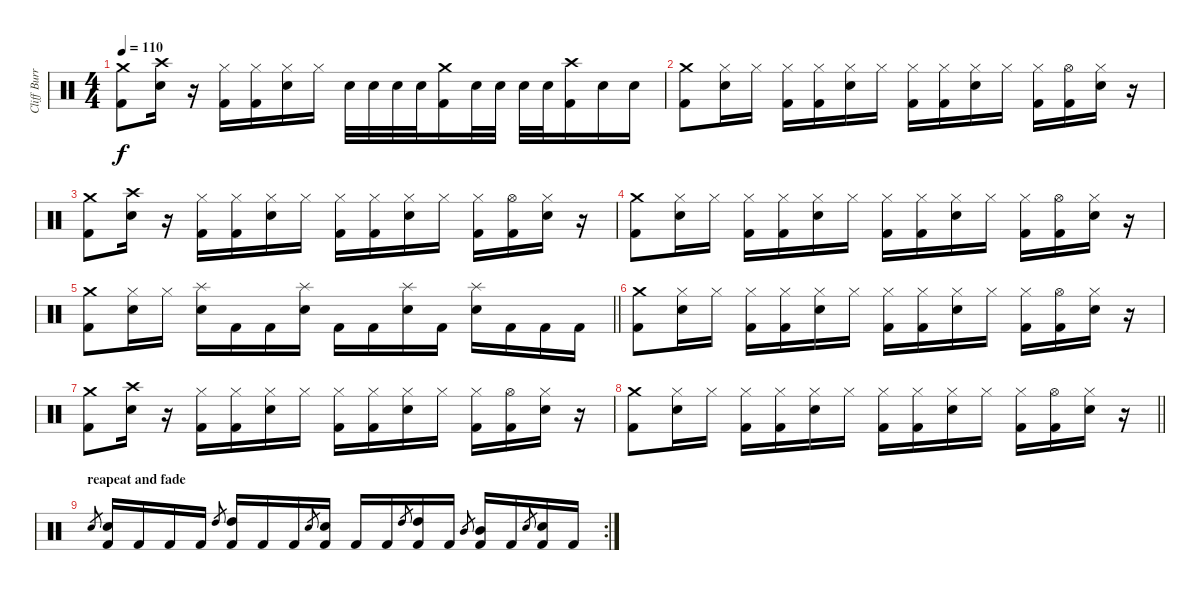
\track ("Cliff Burr" "Cliff Burr") {instrument percussion}
\staff {score}
\articulation defaults
\ts (4 4)
\tempo 110
\clef neutral
\ks c
("Crash medium (hit)" "Kick (hit) 2").8{dy f} ("Crash high (hit)" "Electric Snare (hit)").16 r.16 ("Hi-Hat (closed)" "Kick (hit) 2").16 ("Hi-Hat (closed)" "Kick (hit) 2").16 ("Hi-Hat (closed)" "Electric Snare (hit)").16 "Hi-Hat (closed)".16 "Electric Snare (hit)".32 "Electric Snare (hit)".32 "Electric Snare (hit)".32 "Electric Snare (hit)".32 ("Crash medium (hit)" "Kick (hit) 2").16 "Electric Snare (hit)".32 "Electric Snare (hit)".32 "Electric Snare (hit)".32 "Electric Snare (hit)".32 ("Crash high (hit)" "Kick (hit) 2").16 "Electric Snare (hit)".16 "Electric Snare (hit)".16 |
("Crash medium (hit)" "Kick (hit) 2").8 ("Hi-Hat (closed)" "Electric Snare (hit)").16 "Hi-Hat (closed)".16 ("Hi-Hat (closed)" "Kick (hit) 2").16 ("Hi-Hat (closed)" "Kick (hit) 2").16 ("Hi-Hat (closed)" "Electric Snare (hit)").16 "Hi-Hat (closed)".16 ("Hi-Hat (closed)" "Kick (hit) 2").16 ("Hi-Hat (closed)" "Kick (hit) 2").16 ("Hi-Hat (closed)" "Electric Snare (hit)").16 "Hi-Hat (closed)".16 ("Hi-Hat (closed)" "Kick (hit) 2").16 ("Hi-Hat (open)" "Kick (hit) 2").16 ("Hi-Hat (closed)" "Electric Snare (hit)").16 r.16 |
("Crash medium (hit)" "Kick (hit) 2").8 ("Crash high (hit)" "Electric Snare (hit)").16 r.16 ("Hi-Hat (closed)" "Kick (hit) 2").16 ("Hi-Hat (closed)" "Kick (hit) 2").16 ("Hi-Hat (closed)" "Electric Snare (hit)").16 "Hi-Hat (closed)".16 ("Hi-Hat (closed)" "Kick (hit) 2").16 ("Hi-Hat (closed)" "Kick (hit) 2").16 ("Hi-Hat (closed)" "Electric Snare (hit)").16 "Hi-Hat (closed)".16 ("Hi-Hat (closed)" "Kick (hit) 2").16 ("Hi-Hat (open)" "Kick (hit) 2").16 ("Hi-Hat (closed)" "Electric Snare (hit)").16 r.16 |
("Crash medium (hit)" "Kick (hit) 2").8 ("Hi-Hat (closed)" "Electric Snare (hit)").16 "Hi-Hat (closed)".16 ("Hi-Hat (closed)" "Kick (hit) 2").16 ("Hi-Hat (closed)" "Kick (hit) 2").16 ("Hi-Hat (closed)" "Electric Snare (hit)").16 "Hi-Hat (closed)".16 ("Hi-Hat (closed)" "Kick (hit) 2").16 ("Hi-Hat (closed)" "Kick (hit) 2").16 ("Hi-Hat (closed)" "Electric Snare (hit)").16 "Hi-Hat (closed)".16 ("Hi-Hat (closed)" "Kick (hit) 2").16 ("Hi-Hat (open)" "Kick (hit) 2").16 ("Hi-Hat (closed)" "Electric Snare (hit)").16 r.16 |
\barLineRight lightlight
("Crash medium (hit)" "Kick (hit) 2").8 ("Hi-Hat (closed)" "Electric Snare (hit)").16 "Hi-Hat (closed)".16 ("Splash (hit)" "Electric Snare (hit)").16 "Kick (hit) 2".16 "Kick (hit) 2".16 ("Splash (hit)" "Electric Snare (hit)").16 "Kick (hit) 2".16 "Kick (hit) 2".16 ("Splash (hit)" "Electric Snare (hit)").16 "Kick (hit) 2".16 ("Splash (hit)" "Electric Snare (hit)").16 "Kick (hit) 2".16 "Kick (hit) 2".16 "Kick (hit) 2".16 |
("Crash medium (hit)" "Kick (hit) 2").8 ("Hi-Hat (closed)" "Electric Snare (hit)").16 "Hi-Hat (closed)".16 ("Hi-Hat (closed)" "Kick (hit) 2").16 ("Hi-Hat (closed)" "Kick (hit) 2").16 ("Hi-Hat (closed)" "Electric Snare (hit)").16 "Hi-Hat (closed)".16 ("Hi-Hat (closed)" "Kick (hit) 2").16 ("Hi-Hat (closed)" "Kick (hit) 2").16 ("Hi-Hat (closed)" "Electric Snare (hit)").16 "Hi-Hat (closed)".16 ("Hi-Hat (closed)" "Kick (hit) 2").16 ("Hi-Hat (open)" "Kick (hit) 2").16 ("Hi-Hat (closed)" "Electric Snare (hit)").16 r.16 |
("Crash medium (hit)" "Kick (hit) 2").8 ("Crash high (hit)" "Electric Snare (hit)").16 r.16 ("Hi-Hat (closed)" "Kick (hit) 2").16 ("Hi-Hat (closed)" "Kick (hit) 2").16 ("Hi-Hat (closed)" "Electric Snare (hit)").16 "Hi-Hat (closed)".16 ("Hi-Hat (closed)" "Kick (hit) 2").16 ("Hi-Hat (closed)" "Kick (hit) 2").16 ("Hi-Hat (closed)" "Electric Snare (hit)").16 "Hi-Hat (closed)".16 ("Hi-Hat (closed)" "Kick (hit) 2").16 ("Hi-Hat (open)" "Kick (hit) 2").16 ("Hi-Hat (closed)" "Electric Snare (hit)").16 r.16 |
\barLineRight lightlight
("Crash medium (hit)" "Kick (hit) 2").8 ("Hi-Hat (closed)" "Electric Snare (hit)").16 "Hi-Hat (closed)".16 ("Hi-Hat (closed)" "Kick (hit) 2").16 ("Hi-Hat (closed)" "Kick (hit) 2").16 ("Hi-Hat (closed)" "Electric Snare (hit)").16 "Hi-Hat (closed)".16 ("Hi-Hat (closed)" "Kick (hit) 2").16 ("Hi-Hat (closed)" "Kick (hit) 2").16 ("Hi-Hat (closed)" "Electric Snare (hit)").16 "Hi-Hat (closed)".16 ("Hi-Hat (closed)" "Kick (hit) 2").16 ("Hi-Hat (open)" "Kick (hit) 2").16 ("Hi-Hat (closed)" "Electric Snare (hit)").16 r.16 |
\rc 2
\section ("" "reapeat and fade")
"Electric Snare (hit)".8{gr} ("Electric Snare (hit)" "Kick (hit) 2").16 "Kick (hit) 2".16 "Kick (hit) 2".16 "Kick (hit) 2".16 "High Tom (hit)".8{gr} ("High Tom (hit)" "Kick (hit) 2").16 "Kick (hit) 2".16 "Kick (hit) 2".16 "Electric Snare (hit)".8{gr} ("Electric Snare (hit)" "Kick (hit) 2").16 "Kick (hit) 2".16 "Kick (hit) 2".16 "High Tom (hit)".8{gr} ("High Tom (hit)" "Kick (hit) 2").16 "Kick (hit) 2".16 "Mid Tom (hit)".8{gr} ("Mid Tom (hit)" "Kick (hit) 2").16 "Kick (hit) 2".16 "Electric Snare (hit)".8{gr} ("Electric Snare (hit)" "Kick (hit) 2").16 "Kick (hit) 2".16
